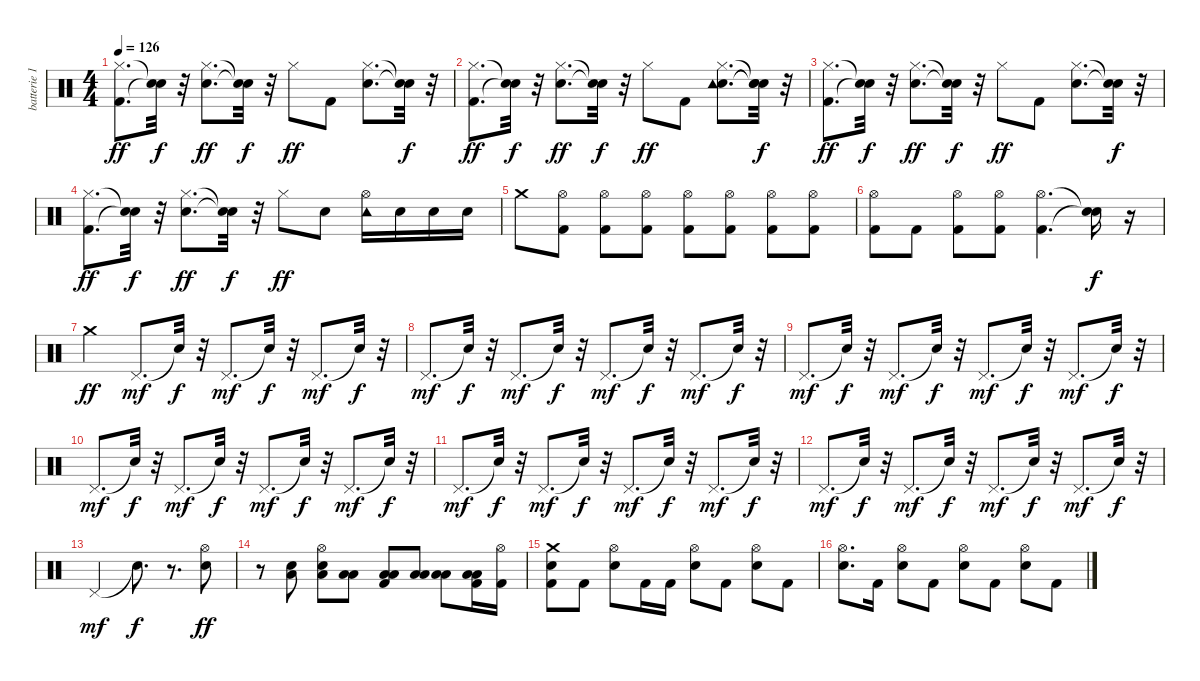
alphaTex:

\track ("batterie 1" "batterie 1") {instrument percussion}
\staff {score}
\articulation defaults
\ts (4 4)
\tempo 126
\clef neutral
\ks c
("Kick (hit) 2" "Hi-Hat (closed)").8{d dy ff} ("Snare (hit)"{t} "Snare (hit)"{t}).32{dy f} r.32 ("Electric Snare (hit)" "Hi-Hat (closed)").8{d dy ff} ("Snare (hit)"{t} "Snare (hit)"{t}).32{dy f} r.32 "Hi-Hat (closed)".8{dy ff} "Kick (hit) 2".8 ("Electric Snare (hit)" "Hi-Hat (closed)").8{d} ("Snare (hit)"{t} "Snare (hit)"{t}).32{dy f} r.32 |
("Kick (hit) 2" "Hi-Hat (closed)").8{d dy ff} ("Snare (hit)"{t} "Snare (hit)"{t}).32{dy f} r.32 ("Electric Snare (hit)" "Hi-Hat (closed)").8{d dy ff} ("Snare (hit)"{t} "Snare (hit)"{t}).32{dy f} r.32 "Hi-Hat (closed)".8{dy ff} "Kick (hit) 2".8 ("Electric Snare (hit)" "Hi-Hat (closed)" "Tambourine (hit)").8{d} ("Snare (hit)"{t} "Snare (hit)"{t} "Snare (hit)"{t}).32{dy f} r.32 |
("Kick (hit) 2" "Hi-Hat (closed)").8{d dy ff} ("Snare (hit)"{t} "Snare (hit)"{t}).32{dy f} r.32 ("Electric Snare (hit)" "Hi-Hat (closed)").8{d dy ff} ("Snare (hit)"{t} "Snare (hit)"{t}).32{dy f} r.32 "Hi-Hat (closed)".8{dy ff} "Kick (hit) 2".8 ("Electric Snare (hit)" "Hi-Hat (closed)").8{d} ("Snare (hit)"{t} "Snare (hit)"{t}).32{dy f} r.32 |
("Kick (hit) 2" "Hi-Hat (closed)").8{d dy ff} ("Snare (hit)"{t} "Snare (hit)"{t}).32{dy f} r.32 ("Electric Snare (hit)" "Hi-Hat (closed)").8{d dy ff} ("Snare (hit)"{t} "Snare (hit)"{t}).32{dy f} r.32 "Hi-Hat (closed)".8{dy ff} "Electric Snare (hit)".8 ("Hi-Hat (open)" "Tambourine (hit)").16 "Electric Snare (hit)".16 "Electric Snare (hit)".16 "Electric Snare (hit)".16 |
"Crash medium (hit)".8 ("Kick (hit) 2" "Hi-Hat (open)").8 ("Kick (hit) 2" "Hi-Hat (open)").8 ("Kick (hit) 2" "Hi-Hat (open)").8 ("Kick (hit) 2" "Hi-Hat (open)").8 ("Kick (hit) 2" "Hi-Hat (open)").8 ("Kick (hit) 2" "Hi-Hat (open)").8 ("Kick (hit) 2" "Hi-Hat (open)").8 |
("Kick (hit) 2" "Hi-Hat (open)").8 "Kick (hit) 2".8 ("Kick (hit) 2" "Hi-Hat (open)").8 ("Kick (hit) 2" "Hi-Hat (open)").8 ("Kick (hit) 2" "Hi-Hat (open)").4{d} ("Snare (hit)"{t} "Snare (hit)"{t}).16{dy f} r.16 |
"Crash medium (hit)".4{dy ff} "Pedal Hi-Hat (hit)".8{d dy mf} "Snare (hit)"{t}.32{dy f} r.32 "Pedal Hi-Hat (hit)".8{d dy mf} "Snare (hit)"{t}.32{dy f} r.32 "Pedal Hi-Hat (hit)".8{d dy mf} "Snare (hit)"{t}.32{dy f} r.32 |
"Pedal Hi-Hat (hit)".8{d dy mf} "Snare (hit)"{t}.32{dy f} r.32 "Pedal Hi-Hat (hit)".8{d dy mf} "Snare (hit)"{t}.32{dy f} r.32 "Pedal Hi-Hat (hit)".8{d dy mf} "Snare (hit)"{t}.32{dy f} r.32 "Pedal Hi-Hat (hit)".8{d dy mf} "Snare (hit)"{t}.32{dy f} r.32 |
"Pedal Hi-Hat (hit)".8{d dy mf} "Snare (hit)"{t}.32{dy f} r.32 "Pedal Hi-Hat (hit)".8{d dy mf} "Snare (hit)"{t}.32{dy f} r.32 "Pedal Hi-Hat (hit)".8{d dy mf} "Snare (hit)"{t}.32{dy f} r.32 "Pedal Hi-Hat (hit)".8{d dy mf} "Snare (hit)"{t}.32{dy f} r.32 |
"Pedal Hi-Hat (hit)".8{d dy mf} "Snare (hit)"{t}.32{dy f} r.32 "Pedal Hi-Hat (hit)".8{d dy mf} "Snare (hit)"{t}.32{dy f} r.32 "Pedal Hi-Hat (hit)".8{d dy mf} "Snare (hit)"{t}.32{dy f} r.32 "Pedal Hi-Hat (hit)".8{d dy mf} "Snare (hit)"{t}.32{dy f} r.32 |
"Pedal Hi-Hat (hit)".8{d dy mf} "Snare (hit)"{t}.32{dy f} r.32 "Pedal Hi-Hat (hit)".8{d dy mf} "Snare (hit)"{t}.32{dy f} r.32 "Pedal Hi-Hat (hit)".8{d dy mf} "Snare (hit)"{t}.32{dy f} r.32 "Pedal Hi-Hat (hit)".8{d dy mf} "Snare (hit)"{t}.32{dy f} r.32 |
"Pedal Hi-Hat (hit)".8{d dy mf} "Snare (hit)"{t}.32{dy f} r.32 "Pedal Hi-Hat (hit)".8{d dy mf} "Snare (hit)"{t}.32{dy f} r.32 "Pedal Hi-Hat (hit)".8{d dy mf} "Snare (hit)"{t}.32{dy f} r.32 "Pedal Hi-Hat (hit)".8{d dy mf} "Snare (hit)"{t}.32{dy f} r.32 |
"Pedal Hi-Hat (hit)".2{dy mf} "Snare (hit)"{t}.8{d dy f} r.8{d} ("Electric Snare (hit)" "Hi-Hat (open)").8{dy ff} |
r.8 ("Electric Snare (hit)" "Low Floor Tom (hit)").8 ("Electric Snare (hit)" "Low Floor Tom (hit)" "Hi-Hat (open)").8 ("Low Floor Tom (hit)" "Low Tom (hit)").8 ("Kick (hit) 2" "Low Floor Tom (hit)" "Low Tom (hit)").8 ("Low Floor Tom (hit)" "Low Tom (hit)").8 ("Low Floor Tom (hit)" "Low Tom (hit)").8 ("Kick (hit) 2" "Low Floor Tom (hit)" "Low Tom (hit)").16 ("Kick (hit) 2" "Hi-Hat (open)").16 |
("Kick (hit) 2" "Electric Snare (hit)" "Crash medium (hit)").8 "Kick (hit) 2".8 ("Electric Snare (hit)" "Hi-Hat (open)").8 "Kick (hit) 2".16 "Kick (hit) 2".16 ("Electric Snare (hit)" "Hi-Hat (open)").8 "Kick (hit) 2".8 ("Electric Snare (hit)" "Hi-Hat (open)").8 "Kick (hit) 2".8 |
("Electric Snare (hit)" "Hi-Hat (open)").8{d} "Kick (hit) 2".16 ("Electric Snare (hit)" "Hi-Hat (open)").8 "Kick (hit) 2".8 ("Electric Snare (hit)" "Hi-Hat (open)").8 "Kick (hit) 2".8 ("Electric Snare (hit)" "Hi-Hat (open)").8 "Kick (hit) 2".8
